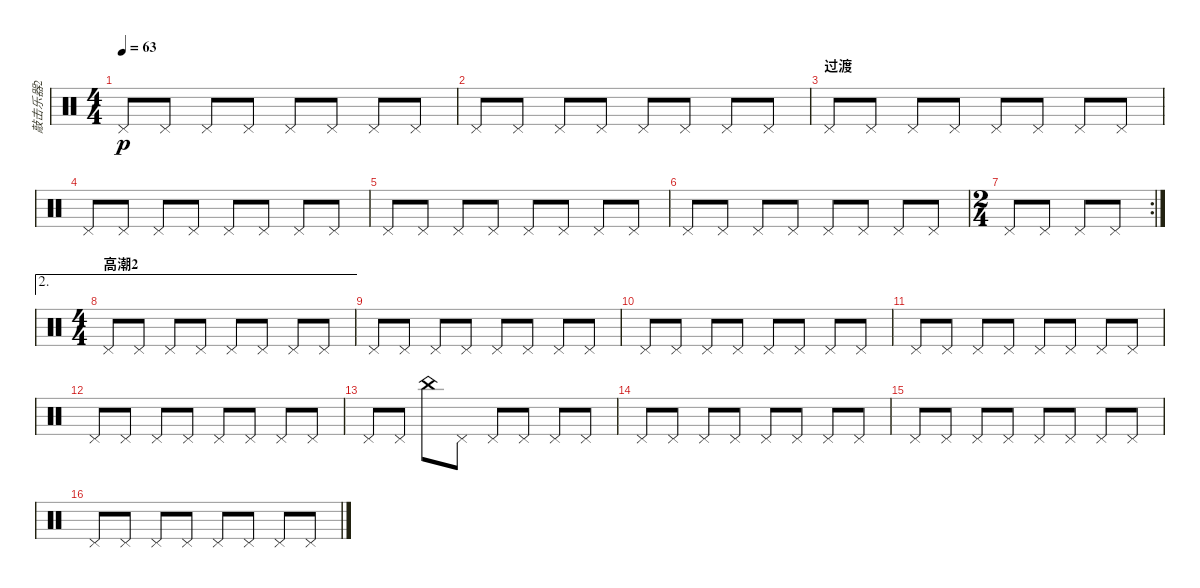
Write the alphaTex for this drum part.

\track ("敲击乐器2" "敲击乐器2") {instrument percussion}
\staff {score}
\articulation defaults
\ts (4 4)
\tempo 63
\clef neutral
\ks c "Pedal Hi-Hat (hit)".8{dy p} "Pedal Hi-Hat (hit)".8 "Pedal Hi-Hat (hit)".8 "Pedal Hi-Hat (hit)".8 "Pedal Hi-Hat (hit)".8 "Pedal Hi-Hat (hit)".8 "Pedal Hi-Hat (hit)".8 "Pedal Hi-Hat (hit)".8
|
"Pedal Hi-Hat (hit)".8 "Pedal Hi-Hat (hit)".8 "Pedal Hi-Hat (hit)".8 "Pedal Hi-Hat (hit)".8 "Pedal Hi-Hat (hit)".8 "Pedal Hi-Hat (hit)".8 "Pedal Hi-Hat (hit)".8 "Pedal Hi-Hat (hit)".8 |
\section ("" "过渡")
"Pedal Hi-Hat (hit)".8 "Pedal Hi-Hat (hit)".8 "Pedal Hi-Hat (hit)".8 "Pedal Hi-Hat (hit)".8 "Pedal Hi-Hat (hit)".8 "Pedal Hi-Hat (hit)".8 "Pedal Hi-Hat (hit)".8 "Pedal Hi-Hat (hit)".8 |
"Pedal Hi-Hat (hit)".8 "Pedal Hi-Hat (hit)".8 "Pedal Hi-Hat (hit)".8 "Pedal Hi-Hat (hit)".8 "Pedal Hi-Hat (hit)".8 "Pedal Hi-Hat (hit)".8 "Pedal Hi-Hat (hit)".8 "Pedal Hi-Hat (hit)".8 |
"Pedal Hi-Hat (hit)".8 "Pedal Hi-Hat (hit)".8 "Pedal Hi-Hat (hit)".8 "Pedal Hi-Hat (hit)".8 "Pedal Hi-Hat (hit)".8 "Pedal Hi-Hat (hit)".8 "Pedal Hi-Hat (hit)".8 "Pedal Hi-Hat (hit)".8 |
"Pedal Hi-Hat (hit)".8 "Pedal Hi-Hat (hit)".8 "Pedal Hi-Hat (hit)".8 "Pedal Hi-Hat (hit)".8 "Pedal Hi-Hat (hit)".8 "Pedal Hi-Hat (hit)".8 "Pedal Hi-Hat (hit)".8 "Pedal Hi-Hat (hit)".8 |
\rc 2
\ts (2 4)
"Pedal Hi-Hat (hit)".8 "Pedal Hi-Hat (hit)".8 "Pedal Hi-Hat (hit)".8 "Pedal Hi-Hat (hit)".8 |
\ae 2
\ts (4 4)
\section ("" "高潮2")
"Pedal Hi-Hat (hit)".8 "Pedal Hi-Hat (hit)".8 "Pedal Hi-Hat (hit)".8 "Pedal Hi-Hat (hit)".8 "Pedal Hi-Hat (hit)".8 "Pedal Hi-Hat (hit)".8 "Pedal Hi-Hat (hit)".8 "Pedal Hi-Hat (hit)".8 |
"Pedal Hi-Hat (hit)".8 "Pedal Hi-Hat (hit)".8 "Pedal Hi-Hat (hit)".8 "Pedal Hi-Hat (hit)".8 "Pedal Hi-Hat (hit)".8 "Pedal Hi-Hat (hit)".8 "Pedal Hi-Hat (hit)".8 "Pedal Hi-Hat (hit)".8 |
"Pedal Hi-Hat (hit)".8 "Pedal Hi-Hat (hit)".8 "Pedal Hi-Hat (hit)".8 "Pedal Hi-Hat (hit)".8 "Pedal Hi-Hat (hit)".8 "Pedal Hi-Hat (hit)".8 "Pedal Hi-Hat (hit)".8 "Pedal Hi-Hat (hit)".8 |
"Pedal Hi-Hat (hit)".8 "Pedal Hi-Hat (hit)".8 "Pedal Hi-Hat (hit)".8 "Pedal Hi-Hat (hit)".8 "Pedal Hi-Hat (hit)".8 "Pedal Hi-Hat (hit)".8 "Pedal Hi-Hat (hit)".8 "Pedal Hi-Hat (hit)".8 |
"Pedal Hi-Hat (hit)".8 "Pedal Hi-Hat (hit)".8 "Pedal Hi-Hat (hit)".8 "Pedal Hi-Hat (hit)".8 "Pedal Hi-Hat (hit)".8 "Pedal Hi-Hat (hit)".8 "Pedal Hi-Hat (hit)".8 "Pedal Hi-Hat (hit)".8 |
"Pedal Hi-Hat (hit)".8 "Pedal Hi-Hat (hit)".8 "China (hit)".8 "Pedal Hi-Hat (hit)".8 "Pedal Hi-Hat (hit)".8 "Pedal Hi-Hat (hit)".8 "Pedal Hi-Hat (hit)".8 "Pedal Hi-Hat (hit)".8 |
"Pedal Hi-Hat (hit)".8 "Pedal Hi-Hat (hit)".8 "Pedal Hi-Hat (hit)".8 "Pedal Hi-Hat (hit)".8 "Pedal Hi-Hat (hit)".8 "Pedal Hi-Hat (hit)".8 "Pedal Hi-Hat (hit)".8 "Pedal Hi-Hat (hit)".8 |
"Pedal Hi-Hat (hit)".8 "Pedal Hi-Hat (hit)".8 "Pedal Hi-Hat (hit)".8 "Pedal Hi-Hat (hit)".8 "Pedal Hi-Hat (hit)".8 "Pedal Hi-Hat (hit)".8 "Pedal Hi-Hat (hit)".8 "Pedal Hi-Hat (hit)".8 |
"Pedal Hi-Hat (hit)".8 "Pedal Hi-Hat (hit)".8 "Pedal Hi-Hat (hit)".8 "Pedal Hi-Hat (hit)".8 "Pedal Hi-Hat (hit)".8 "Pedal Hi-Hat (hit)".8 "Pedal Hi-Hat (hit)".8 "Pedal Hi-Hat (hit)".8
